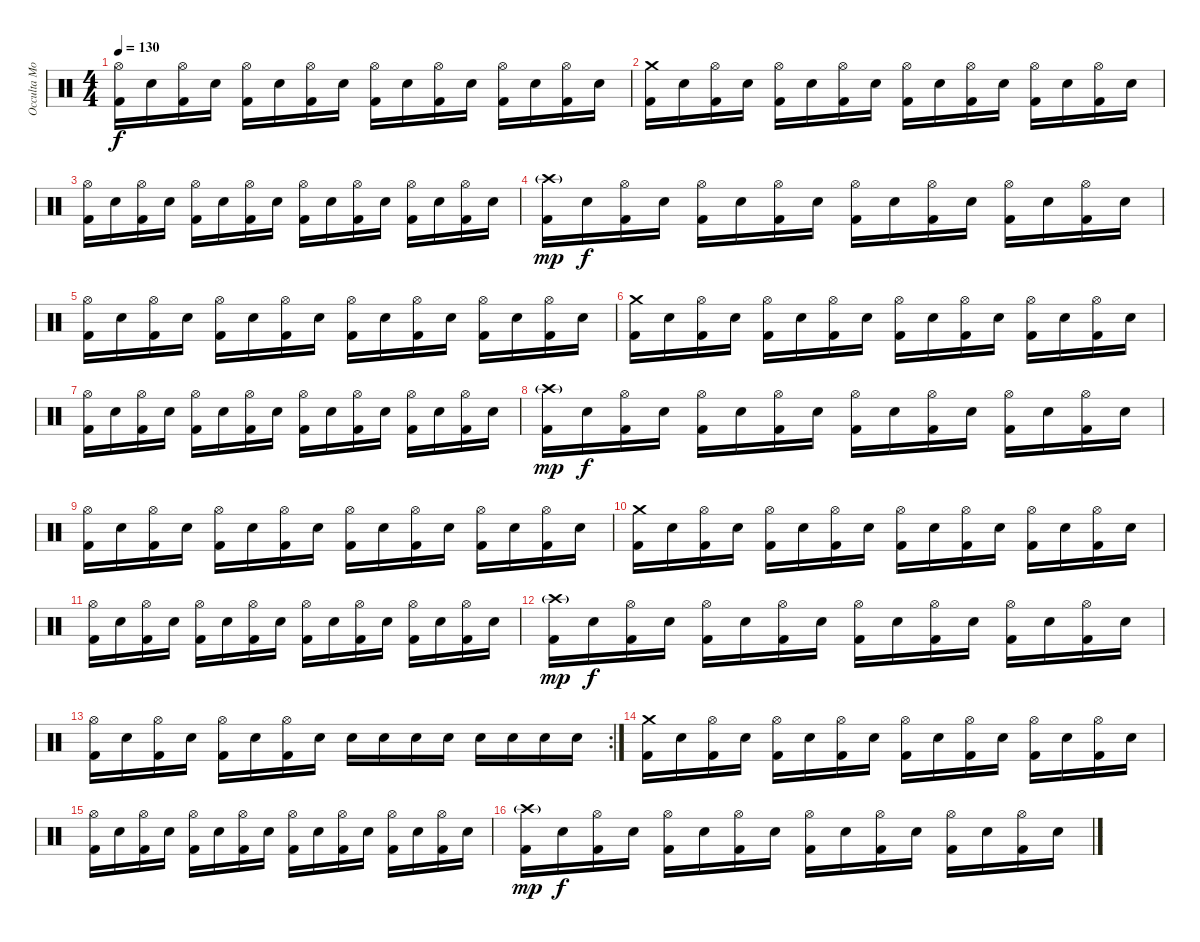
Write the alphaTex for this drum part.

\track ("Occulta Mors" "Occulta Mo") {instrument percussion}
\staff {score}
\articulation defaults
\ts (4 4)
\tempo 130
\clef neutral
\ks c
("Hi-Hat (open)" "Kick (hit) 2").16{dy f} "Snare (hit) 2".16 ("Hi-Hat (open)" "Kick (hit) 2").16 "Snare (hit) 2".16 ("Hi-Hat (open)" "Kick (hit) 2").16 "Snare (hit) 2".16 ("Hi-Hat (open)" "Kick (hit) 2").16 "Snare (hit) 2".16 ("Hi-Hat (open)" "Kick (hit) 2").16 "Snare (hit) 2".16 ("Hi-Hat (open)" "Kick (hit) 2").16 "Snare (hit) 2".16 ("Hi-Hat (open)" "Kick (hit) 2").16 "Snare (hit) 2".16 ("Hi-Hat (open)" "Kick (hit) 2").16 "Snare (hit) 2".16 |
("Crash medium (hit)" "Kick (hit) 2").16 "Snare (hit) 2".16 ("Hi-Hat (open)" "Kick (hit) 2").16 "Snare (hit) 2".16 ("Hi-Hat (open)" "Kick (hit) 2").16 "Snare (hit) 2".16 ("Hi-Hat (open)" "Kick (hit) 2").16 "Snare (hit) 2".16 ("Hi-Hat (open)" "Kick (hit) 2").16 "Snare (hit) 2".16 ("Hi-Hat (open)" "Kick (hit) 2").16 "Snare (hit) 2".16 ("Hi-Hat (open)" "Kick (hit) 2").16 "Snare (hit) 2".16 ("Hi-Hat (open)" "Kick (hit) 2").16 "Snare (hit) 2".16 |
("Hi-Hat (open)" "Kick (hit) 2").16 "Snare (hit) 2".16 ("Hi-Hat (open)" "Kick (hit) 2").16 "Snare (hit) 2".16 ("Hi-Hat (open)" "Kick (hit) 2").16 "Snare (hit) 2".16 ("Hi-Hat (open)" "Kick (hit) 2").16 "Snare (hit) 2".16 ("Hi-Hat (open)" "Kick (hit) 2").16 "Snare (hit) 2".16 ("Hi-Hat (open)" "Kick (hit) 2").16 "Snare (hit) 2".16 ("Hi-Hat (open)" "Kick (hit) 2").16 "Snare (hit) 2".16 ("Hi-Hat (open)" "Kick (hit) 2").16 "Snare (hit) 2".16 |
("Crash high (hit)"{g} "Kick (hit) 2").16{dy mp} "Snare (hit) 2".16{dy f} ("Hi-Hat (open)" "Kick (hit) 2").16 "Snare (hit) 2".16 ("Hi-Hat (open)" "Kick (hit) 2").16 "Snare (hit) 2".16 ("Hi-Hat (open)" "Kick (hit) 2").16 "Snare (hit) 2".16 ("Hi-Hat (open)" "Kick (hit) 2").16 "Snare (hit) 2".16 ("Hi-Hat (open)" "Kick (hit) 2").16 "Snare (hit) 2".16 ("Hi-Hat (open)" "Kick (hit) 2").16 "Snare (hit) 2".16 ("Hi-Hat (open)" "Kick (hit) 2").16 "Snare (hit) 2".16 |
("Hi-Hat (open)" "Kick (hit) 2").16 "Snare (hit) 2".16 ("Hi-Hat (open)" "Kick (hit) 2").16 "Snare (hit) 2".16 ("Hi-Hat (open)" "Kick (hit) 2").16 "Snare (hit) 2".16 ("Hi-Hat (open)" "Kick (hit) 2").16 "Snare (hit) 2".16 ("Hi-Hat (open)" "Kick (hit) 2").16 "Snare (hit) 2".16 ("Hi-Hat (open)" "Kick (hit) 2").16 "Snare (hit) 2".16 ("Hi-Hat (open)" "Kick (hit) 2").16 "Snare (hit) 2".16 ("Hi-Hat (open)" "Kick (hit) 2").16 "Snare (hit) 2".16 |
("Crash medium (hit)" "Kick (hit) 2").16 "Snare (hit) 2".16 ("Hi-Hat (open)" "Kick (hit) 2").16 "Snare (hit) 2".16 ("Hi-Hat (open)" "Kick (hit) 2").16 "Snare (hit) 2".16 ("Hi-Hat (open)" "Kick (hit) 2").16 "Snare (hit) 2".16 ("Hi-Hat (open)" "Kick (hit) 2").16 "Snare (hit) 2".16 ("Hi-Hat (open)" "Kick (hit) 2").16 "Snare (hit) 2".16 ("Hi-Hat (open)" "Kick (hit) 2").16 "Snare (hit) 2".16 ("Hi-Hat (open)" "Kick (hit) 2").16 "Snare (hit) 2".16 |
("Hi-Hat (open)" "Kick (hit) 2").16 "Snare (hit) 2".16 ("Hi-Hat (open)" "Kick (hit) 2").16 "Snare (hit) 2".16 ("Hi-Hat (open)" "Kick (hit) 2").16 "Snare (hit) 2".16 ("Hi-Hat (open)" "Kick (hit) 2").16 "Snare (hit) 2".16 ("Hi-Hat (open)" "Kick (hit) 2").16 "Snare (hit) 2".16 ("Hi-Hat (open)" "Kick (hit) 2").16 "Snare (hit) 2".16 ("Hi-Hat (open)" "Kick (hit) 2").16 "Snare (hit) 2".16 ("Hi-Hat (open)" "Kick (hit) 2").16 "Snare (hit) 2".16 |
("Crash high (hit)"{g} "Kick (hit) 2").16{dy mp} "Snare (hit) 2".16{dy f} ("Hi-Hat (open)" "Kick (hit) 2").16 "Snare (hit) 2".16 ("Hi-Hat (open)" "Kick (hit) 2").16 "Snare (hit) 2".16 ("Hi-Hat (open)" "Kick (hit) 2").16 "Snare (hit) 2".16 ("Hi-Hat (open)" "Kick (hit) 2").16 "Snare (hit) 2".16 ("Hi-Hat (open)" "Kick (hit) 2").16 "Snare (hit) 2".16 ("Hi-Hat (open)" "Kick (hit) 2").16 "Snare (hit) 2".16 ("Hi-Hat (open)" "Kick (hit) 2").16 "Snare (hit) 2".16 |
("Hi-Hat (open)" "Kick (hit) 2").16 "Snare (hit) 2".16 ("Hi-Hat (open)" "Kick (hit) 2").16 "Snare (hit) 2".16 ("Hi-Hat (open)" "Kick (hit) 2").16 "Snare (hit) 2".16 ("Hi-Hat (open)" "Kick (hit) 2").16 "Snare (hit) 2".16 ("Hi-Hat (open)" "Kick (hit) 2").16 "Snare (hit) 2".16 ("Hi-Hat (open)" "Kick (hit) 2").16 "Snare (hit) 2".16 ("Hi-Hat (open)" "Kick (hit) 2").16 "Snare (hit) 2".16 ("Hi-Hat (open)" "Kick (hit) 2").16 "Snare (hit) 2".16 |
("Crash medium (hit)" "Kick (hit) 2").16 "Snare (hit) 2".16 ("Hi-Hat (open)" "Kick (hit) 2").16 "Snare (hit) 2".16 ("Hi-Hat (open)" "Kick (hit) 2").16 "Snare (hit) 2".16 ("Hi-Hat (open)" "Kick (hit) 2").16 "Snare (hit) 2".16 ("Hi-Hat (open)" "Kick (hit) 2").16 "Snare (hit) 2".16 ("Hi-Hat (open)" "Kick (hit) 2").16 "Snare (hit) 2".16 ("Hi-Hat (open)" "Kick (hit) 2").16 "Snare (hit) 2".16 ("Hi-Hat (open)" "Kick (hit) 2").16 "Snare (hit) 2".16 |
("Hi-Hat (open)" "Kick (hit) 2").16 "Snare (hit) 2".16 ("Hi-Hat (open)" "Kick (hit) 2").16 "Snare (hit) 2".16 ("Hi-Hat (open)" "Kick (hit) 2").16 "Snare (hit) 2".16 ("Hi-Hat (open)" "Kick (hit) 2").16 "Snare (hit) 2".16 ("Hi-Hat (open)" "Kick (hit) 2").16 "Snare (hit) 2".16 ("Hi-Hat (open)" "Kick (hit) 2").16 "Snare (hit) 2".16 ("Hi-Hat (open)" "Kick (hit) 2").16 "Snare (hit) 2".16 ("Hi-Hat (open)" "Kick (hit) 2").16 "Snare (hit) 2".16 |
("Crash high (hit)"{g} "Kick (hit) 2").16{dy mp} "Snare (hit) 2".16{dy f} ("Hi-Hat (open)" "Kick (hit) 2").16 "Snare (hit) 2".16 ("Hi-Hat (open)" "Kick (hit) 2").16 "Snare (hit) 2".16 ("Hi-Hat (open)" "Kick (hit) 2").16 "Snare (hit) 2".16 ("Hi-Hat (open)" "Kick (hit) 2").16 "Snare (hit) 2".16 ("Hi-Hat (open)" "Kick (hit) 2").16 "Snare (hit) 2".16 ("Hi-Hat (open)" "Kick (hit) 2").16 "Snare (hit) 2".16 ("Hi-Hat (open)" "Kick (hit) 2").16 "Snare (hit) 2".16 |
\rc 2
("Hi-Hat (open)" "Kick (hit) 2").16 "Snare (hit) 2".16 ("Hi-Hat (open)" "Kick (hit) 2").16 "Snare (hit) 2".16 ("Hi-Hat (open)" "Kick (hit) 2").16 "Snare (hit) 2".16 ("Hi-Hat (open)" "Kick (hit) 2").16 "Snare (hit) 2".16 "Snare (hit) 2".16 "Snare (hit) 2".16 "Snare (hit) 2".16 "Snare (hit) 2".16 "Snare (hit) 2".16 "Snare (hit) 2".16 "Snare (hit) 2".16 "Snare (hit) 2".16 |
("Crash medium (hit)" "Kick (hit) 2").16 "Snare (hit) 2".16 ("Hi-Hat (open)" "Kick (hit) 2").16 "Snare (hit) 2".16 ("Hi-Hat (open)" "Kick (hit) 2").16 "Snare (hit) 2".16 ("Hi-Hat (open)" "Kick (hit) 2").16 "Snare (hit) 2".16 ("Hi-Hat (open)" "Kick (hit) 2").16 "Snare (hit) 2".16 ("Hi-Hat (open)" "Kick (hit) 2").16 "Snare (hit) 2".16 ("Hi-Hat (open)" "Kick (hit) 2").16 "Snare (hit) 2".16 ("Hi-Hat (open)" "Kick (hit) 2").16 "Snare (hit) 2".16 |
("Hi-Hat (open)" "Kick (hit) 2").16 "Snare (hit) 2".16 ("Hi-Hat (open)" "Kick (hit) 2").16 "Snare (hit) 2".16 ("Hi-Hat (open)" "Kick (hit) 2").16 "Snare (hit) 2".16 ("Hi-Hat (open)" "Kick (hit) 2").16 "Snare (hit) 2".16 ("Hi-Hat (open)" "Kick (hit) 2").16 "Snare (hit) 2".16 ("Hi-Hat (open)" "Kick (hit) 2").16 "Snare (hit) 2".16 ("Hi-Hat (open)" "Kick (hit) 2").16 "Snare (hit) 2".16 ("Hi-Hat (open)" "Kick (hit) 2").16 "Snare (hit) 2".16 |
("Crash high (hit)"{g} "Kick (hit) 2").16{dy mp} "Snare (hit) 2".16{dy f} ("Hi-Hat (open)" "Kick (hit) 2").16 "Snare (hit) 2".16 ("Hi-Hat (open)" "Kick (hit) 2").16 "Snare (hit) 2".16 ("Hi-Hat (open)" "Kick (hit) 2").16 "Snare (hit) 2".16 ("Hi-Hat (open)" "Kick (hit) 2").16 "Snare (hit) 2".16 ("Hi-Hat (open)" "Kick (hit) 2").16 "Snare (hit) 2".16 ("Hi-Hat (open)" "Kick (hit) 2").16 "Snare (hit) 2".16 ("Hi-Hat (open)" "Kick (hit) 2").16 "Snare (hit) 2".16
